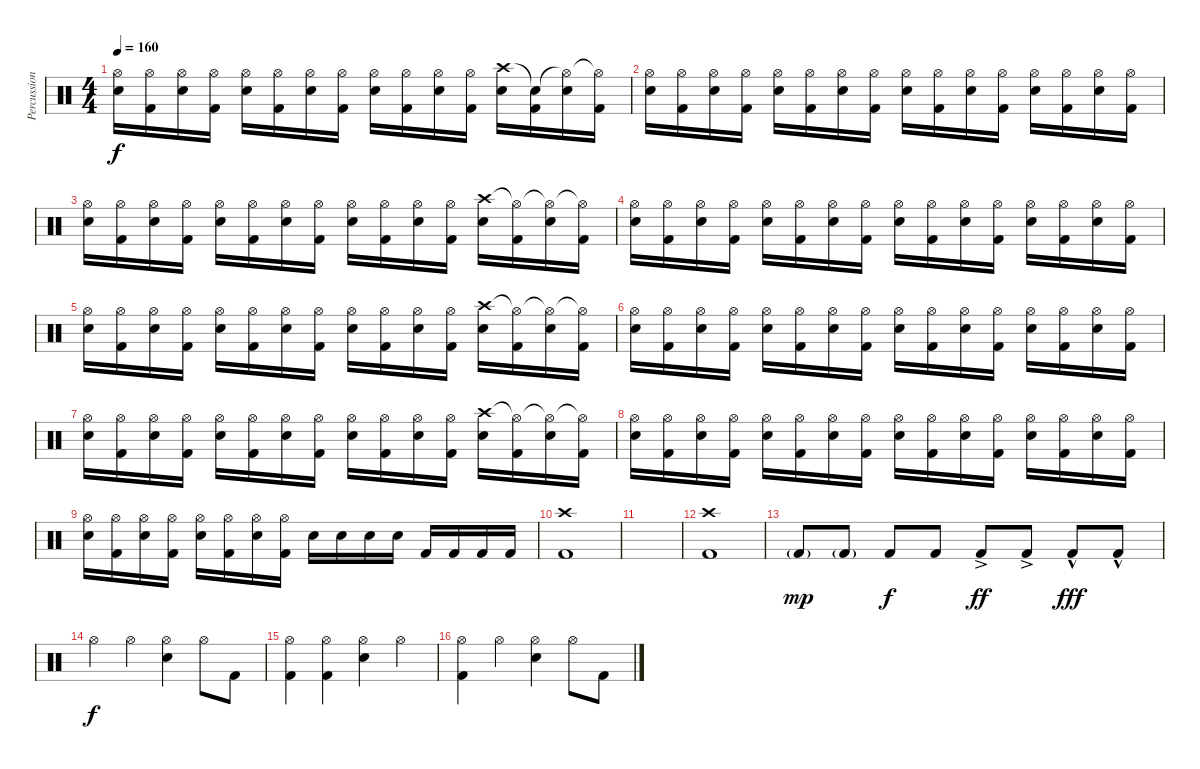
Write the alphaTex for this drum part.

\track ("Percussion" "Percussion") {instrument percussion}
\staff {score}
\articulation defaults
\ts (4 4)
\tempo 160
\clef neutral
\ks c
("Hi-Hat (open)" "Snare (hit) 2").16{dy f} ("Hi-Hat (open)" "Kick (hit) 2").16 ("Hi-Hat (open)" "Snare (hit) 2").16 ("Hi-Hat (open)" "Kick (hit) 2").16 ("Hi-Hat (open)" "Snare (hit) 2").16 ("Hi-Hat (open)" "Kick (hit) 2").16 ("Hi-Hat (open)" "Snare (hit) 2").16 ("Hi-Hat (open)" "Kick (hit) 2").16 ("Hi-Hat (open)" "Snare (hit) 2").16 ("Hi-Hat (open)" "Kick (hit) 2").16 ("Hi-Hat (open)" "Snare (hit) 2").16 ("Hi-Hat (open)" "Kick (hit) 2").16 ("Crash high (hit)" "Snare (hit) 2").16 ("Snare (hit)"{t} "Kick (hit) 2").16 ("Hi-Hat (open)"{t} "Snare (hit) 2").16 ("Hi-Hat (open)"{t} "Kick (hit) 2").16 |
("Hi-Hat (open)" "Snare (hit) 2").16 ("Hi-Hat (open)" "Kick (hit) 2").16 ("Hi-Hat (open)" "Snare (hit) 2").16 ("Hi-Hat (open)" "Kick (hit) 2").16 ("Hi-Hat (open)" "Snare (hit) 2").16 ("Hi-Hat (open)" "Kick (hit) 2").16 ("Hi-Hat (open)" "Snare (hit) 2").16 ("Hi-Hat (open)" "Kick (hit) 2").16 ("Hi-Hat (open)" "Snare (hit) 2").16 ("Hi-Hat (open)" "Kick (hit) 2").16 ("Hi-Hat (open)" "Snare (hit) 2").16 ("Hi-Hat (open)" "Kick (hit) 2").16 ("Hi-Hat (open)" "Snare (hit) 2").16 ("Hi-Hat (open)" "Kick (hit) 2").16 ("Hi-Hat (open)" "Snare (hit) 2").16 ("Hi-Hat (open)" "Kick (hit) 2").16 |
("Hi-Hat (open)" "Snare (hit) 2").16 ("Hi-Hat (open)" "Kick (hit) 2").16 ("Hi-Hat (open)" "Snare (hit) 2").16 ("Hi-Hat (open)" "Kick (hit) 2").16 ("Hi-Hat (open)" "Snare (hit) 2").16 ("Hi-Hat (open)" "Kick (hit) 2").16 ("Hi-Hat (open)" "Snare (hit) 2").16 ("Hi-Hat (open)" "Kick (hit) 2").16 ("Hi-Hat (open)" "Snare (hit) 2").16 ("Hi-Hat (open)" "Kick (hit) 2").16 ("Hi-Hat (open)" "Snare (hit) 2").16 ("Hi-Hat (open)" "Kick (hit) 2").16 ("Crash high (hit)" "Snare (hit) 2").16 ("Hi-Hat (open)"{t} "Kick (hit) 2").16 ("Hi-Hat (open)"{t} "Snare (hit) 2").16 ("Hi-Hat (open)"{t} "Kick (hit) 2").16 |
("Hi-Hat (open)" "Snare (hit) 2").16 ("Hi-Hat (open)" "Kick (hit) 2").16 ("Hi-Hat (open)" "Snare (hit) 2").16 ("Hi-Hat (open)" "Kick (hit) 2").16 ("Hi-Hat (open)" "Snare (hit) 2").16 ("Hi-Hat (open)" "Kick (hit) 2").16 ("Hi-Hat (open)" "Snare (hit) 2").16 ("Hi-Hat (open)" "Kick (hit) 2").16 ("Hi-Hat (open)" "Snare (hit) 2").16 ("Hi-Hat (open)" "Kick (hit) 2").16 ("Hi-Hat (open)" "Snare (hit) 2").16 ("Hi-Hat (open)" "Kick (hit) 2").16 ("Hi-Hat (open)" "Snare (hit) 2").16 ("Hi-Hat (open)" "Kick (hit) 2").16 ("Hi-Hat (open)" "Snare (hit) 2").16 ("Hi-Hat (open)" "Kick (hit) 2").16 |
("Hi-Hat (open)" "Snare (hit) 2").16 ("Hi-Hat (open)" "Kick (hit) 2").16 ("Hi-Hat (open)" "Snare (hit) 2").16 ("Hi-Hat (open)" "Kick (hit) 2").16 ("Hi-Hat (open)" "Snare (hit) 2").16 ("Hi-Hat (open)" "Kick (hit) 2").16 ("Hi-Hat (open)" "Snare (hit) 2").16 ("Hi-Hat (open)" "Kick (hit) 2").16 ("Hi-Hat (open)" "Snare (hit) 2").16 ("Hi-Hat (open)" "Kick (hit) 2").16 ("Hi-Hat (open)" "Snare (hit) 2").16 ("Hi-Hat (open)" "Kick (hit) 2").16 ("Crash high (hit)" "Snare (hit) 2").16 ("Hi-Hat (open)"{t} "Kick (hit) 2").16 ("Hi-Hat (open)"{t} "Snare (hit) 2").16 ("Hi-Hat (open)"{t} "Kick (hit) 2").16 |
("Hi-Hat (open)" "Snare (hit) 2").16 ("Hi-Hat (open)" "Kick (hit) 2").16 ("Hi-Hat (open)" "Snare (hit) 2").16 ("Hi-Hat (open)" "Kick (hit) 2").16 ("Hi-Hat (open)" "Snare (hit) 2").16 ("Hi-Hat (open)" "Kick (hit) 2").16 ("Hi-Hat (open)" "Snare (hit) 2").16 ("Hi-Hat (open)" "Kick (hit) 2").16 ("Hi-Hat (open)" "Snare (hit) 2").16 ("Hi-Hat (open)" "Kick (hit) 2").16 ("Hi-Hat (open)" "Snare (hit) 2").16 ("Hi-Hat (open)" "Kick (hit) 2").16 ("Hi-Hat (open)" "Snare (hit) 2").16 ("Hi-Hat (open)" "Kick (hit) 2").16 ("Hi-Hat (open)" "Snare (hit) 2").16 ("Hi-Hat (open)" "Kick (hit) 2").16 |
("Hi-Hat (open)" "Snare (hit) 2").16 ("Hi-Hat (open)" "Kick (hit) 2").16 ("Hi-Hat (open)" "Snare (hit) 2").16 ("Hi-Hat (open)" "Kick (hit) 2").16 ("Hi-Hat (open)" "Snare (hit) 2").16 ("Hi-Hat (open)" "Kick (hit) 2").16 ("Hi-Hat (open)" "Snare (hit) 2").16 ("Hi-Hat (open)" "Kick (hit) 2").16 ("Hi-Hat (open)" "Snare (hit) 2").16 ("Hi-Hat (open)" "Kick (hit) 2").16 ("Hi-Hat (open)" "Snare (hit) 2").16 ("Hi-Hat (open)" "Kick (hit) 2").16 ("Crash high (hit)" "Snare (hit) 2").16 ("Hi-Hat (open)"{t} "Kick (hit) 2").16 ("Hi-Hat (open)"{t} "Snare (hit) 2").16 ("Hi-Hat (open)"{t} "Kick (hit) 2").16 |
("Hi-Hat (open)" "Snare (hit) 2").16 ("Hi-Hat (open)" "Kick (hit) 2").16 ("Hi-Hat (open)" "Snare (hit) 2").16 ("Hi-Hat (open)" "Kick (hit) 2").16 ("Hi-Hat (open)" "Snare (hit) 2").16 ("Hi-Hat (open)" "Kick (hit) 2").16 ("Hi-Hat (open)" "Snare (hit) 2").16 ("Hi-Hat (open)" "Kick (hit) 2").16 ("Hi-Hat (open)" "Snare (hit) 2").16 ("Hi-Hat (open)" "Kick (hit) 2").16 ("Hi-Hat (open)" "Snare (hit) 2").16 ("Hi-Hat (open)" "Kick (hit) 2").16 ("Hi-Hat (open)" "Snare (hit) 2").16 ("Hi-Hat (open)" "Kick (hit) 2").16 ("Hi-Hat (open)" "Snare (hit) 2").16 ("Hi-Hat (open)" "Kick (hit) 2").16 |
("Hi-Hat (open)" "Snare (hit) 2").16 ("Hi-Hat (open)" "Kick (hit) 2").16 ("Hi-Hat (open)" "Snare (hit) 2").16 ("Hi-Hat (open)" "Kick (hit) 2").16 ("Hi-Hat (open)" "Snare (hit) 2").16 ("Hi-Hat (open)" "Kick (hit) 2").16 ("Hi-Hat (open)" "Snare (hit) 2").16 ("Hi-Hat (open)" "Kick (hit) 2").16 "Snare (hit) 2".16 "Snare (hit) 2".16 "Snare (hit) 2".16 "Snare (hit) 2".16 "Kick (hit) 2".16 "Kick (hit) 2".16 "Kick (hit) 2".16 "Kick (hit) 2".16 |
("Crash high (hit)" "Kick (hit) 2").1 |
|
("Crash high (hit)" "Kick (hit) 2").1 |
"Kick (hit) 2"{g}.8{dy mp} "Kick (hit) 2"{g}.8 "Kick (hit) 2".8{dy f} "Kick (hit) 2".8 "Kick (hit) 2"{ac}.8{dy ff} "Kick (hit) 2"{ac}.8 "Kick (hit) 2"{hac}.8{dy fff} "Kick (hit) 2"{hac}.8 |
"Hi-Hat (open)".4{dy f} "Hi-Hat (open)".4 ("Hi-Hat (open)" "Snare (hit) 2").4 "Hi-Hat (open)".8 "Kick (hit) 2".8 |
("Hi-Hat (open)" "Kick (hit) 2").4 ("Hi-Hat (open)" "Kick (hit) 2").4 ("Hi-Hat (open)" "Snare (hit) 2").4 "Hi-Hat (open)".4 |
("Hi-Hat (open)" "Kick (hit) 2").4 "Hi-Hat (open)".4 ("Hi-Hat (open)" "Snare (hit) 2").4 "Hi-Hat (open)".8 "Kick (hit) 2".8
